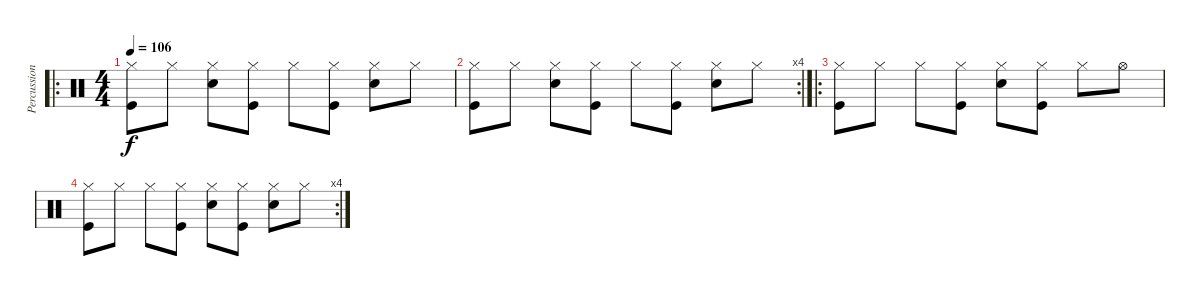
\track ("Percussion" "Percussion") {instrument percussion}
\staff {score}
\articulation defaults
\ro
\ts (4 4)
\tempo 106
\clef neutral
\ks c
("Hi-Hat (closed)" "Kick (hit)").8{dy f} "Hi-Hat (closed)".8 ("Hi-Hat (closed)" "Electric Snare (hit)").8 ("Hi-Hat (closed)" "Kick (hit)").8 "Hi-Hat (closed)".8 ("Hi-Hat (closed)" "Kick (hit)").8 ("Hi-Hat (closed)" "Electric Snare (hit)").8 "Hi-Hat (closed)".8 |
\rc 4
("Hi-Hat (closed)" "Kick (hit)").8 "Hi-Hat (closed)".8 ("Hi-Hat (closed)" "Electric Snare (hit)").8 ("Hi-Hat (closed)" "Kick (hit)").8 "Hi-Hat (closed)".8 ("Hi-Hat (closed)" "Kick (hit)").8 ("Hi-Hat (closed)" "Electric Snare (hit)").8 "Hi-Hat (closed)".8 |
\ro
("Hi-Hat (closed)" "Kick (hit)").8 "Hi-Hat (closed)".8 "Hi-Hat (closed)".8 ("Hi-Hat (closed)" "Kick (hit)").8 ("Hi-Hat (closed)" "Electric Snare (hit)").8 ("Hi-Hat (closed)" "Kick (hit)").8 "Hi-Hat (closed)".8 "Hi-Hat (open)".8 |
\rc 4
("Hi-Hat (closed)" "Kick (hit)").8 "Hi-Hat (closed)".8 "Hi-Hat (closed)".8 ("Hi-Hat (closed)" "Kick (hit)").8 ("Hi-Hat (closed)" "Electric Snare (hit)").8 ("Hi-Hat (closed)" "Kick (hit)").8 ("Hi-Hat (closed)" "Electric Snare (hit)").8 "Hi-Hat (closed)".8
